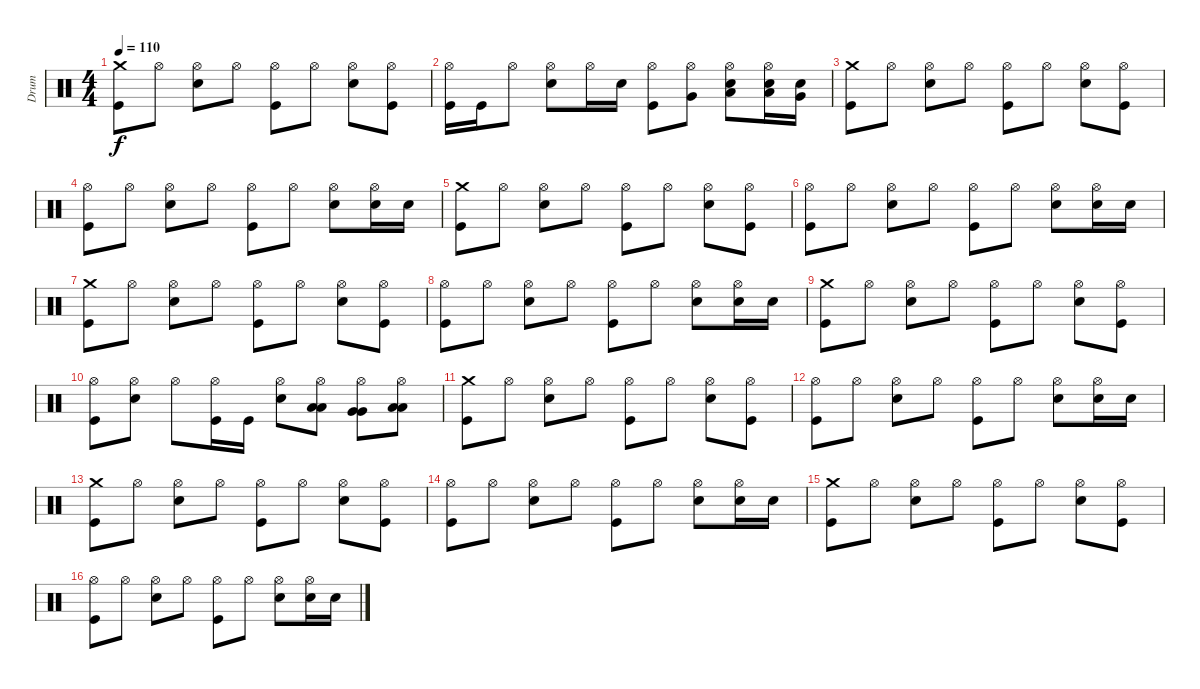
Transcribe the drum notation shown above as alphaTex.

\track ("Drum" "Drum") {instrument percussion}
\staff {score}
\articulation defaults
\ts (4 4)
\tempo 110
\clef neutral
\ks c
("Crash medium (hit)" "Kick (hit)").8{dy f} "Hi-Hat (open)".8 ("Hi-Hat (open)" "Snare (hit) 2").8 "Hi-Hat (open)".8 ("Hi-Hat (open)" "Kick (hit)").8 "Hi-Hat (open)".8 ("Hi-Hat (open)" "Snare (hit) 2").8 ("Hi-Hat (open)" "Kick (hit)").8 |
("Hi-Hat (open)" "Kick (hit)").16 "Kick (hit)".16 "Hi-Hat (open)".8 ("Hi-Hat (open)" "Snare (hit) 2").8 "Hi-Hat (open)".16 "Snare (hit) 2".16 ("Hi-Hat (open)" "Kick (hit)").8 ("Hi-Hat (open)" "Very Low Tom (hit)").8 ("Hi-Hat (open)" "Low Floor Tom (hit)" "Snare (hit) 2").8 ("Hi-Hat (open)" "Low Tom (hit)" "Snare (hit) 2").16 ("Very Low Tom (hit)" "Snare (hit) 2").16 |
("Crash medium (hit)" "Kick (hit)").8 "Hi-Hat (open)".8 ("Hi-Hat (open)" "Snare (hit) 2").8 "Hi-Hat (open)".8 ("Hi-Hat (open)" "Kick (hit)").8 "Hi-Hat (open)".8 ("Hi-Hat (open)" "Snare (hit) 2").8 ("Hi-Hat (open)" "Kick (hit)").8 |
("Hi-Hat (open)" "Kick (hit)").8 "Hi-Hat (open)".8 ("Hi-Hat (open)" "Snare (hit) 2").8 "Hi-Hat (open)".8 ("Hi-Hat (open)" "Kick (hit)").8 "Hi-Hat (open)".8 ("Hi-Hat (open)" "Snare (hit) 2").8 ("Hi-Hat (open)" "Snare (hit) 2").16 "Snare (hit) 2".16 |
("Crash medium (hit)" "Kick (hit)").8 "Hi-Hat (open)".8 ("Hi-Hat (open)" "Snare (hit) 2").8 "Hi-Hat (open)".8 ("Hi-Hat (open)" "Kick (hit)").8 "Hi-Hat (open)".8 ("Hi-Hat (open)" "Snare (hit) 2").8 ("Hi-Hat (open)" "Kick (hit)").8 |
("Hi-Hat (open)" "Kick (hit)").8 "Hi-Hat (open)".8 ("Hi-Hat (open)" "Snare (hit) 2").8 "Hi-Hat (open)".8 ("Hi-Hat (open)" "Kick (hit)").8 "Hi-Hat (open)".8 ("Hi-Hat (open)" "Snare (hit) 2").8 ("Hi-Hat (open)" "Snare (hit) 2").16 "Snare (hit) 2".16 |
("Crash medium (hit)" "Kick (hit)").8 "Hi-Hat (open)".8 ("Hi-Hat (open)" "Snare (hit) 2").8 "Hi-Hat (open)".8 ("Hi-Hat (open)" "Kick (hit)").8 "Hi-Hat (open)".8 ("Hi-Hat (open)" "Snare (hit) 2").8 ("Hi-Hat (open)" "Kick (hit)").8 |
("Hi-Hat (open)" "Kick (hit)").8 "Hi-Hat (open)".8 ("Hi-Hat (open)" "Snare (hit) 2").8 "Hi-Hat (open)".8 ("Hi-Hat (open)" "Kick (hit)").8 "Hi-Hat (open)".8 ("Hi-Hat (open)" "Snare (hit) 2").8 ("Hi-Hat (open)" "Snare (hit) 2").16 "Snare (hit) 2".16 |
("Crash medium (hit)" "Kick (hit)").8 "Hi-Hat (open)".8 ("Hi-Hat (open)" "Snare (hit) 2").8 "Hi-Hat (open)".8 ("Hi-Hat (open)" "Kick (hit)").8 "Hi-Hat (open)".8 ("Hi-Hat (open)" "Snare (hit) 2").8 ("Hi-Hat (open)" "Kick (hit)").8 |
("Hi-Hat (open)" "Kick (hit)").8 ("Hi-Hat (open)" "Snare (hit) 2").8 "Hi-Hat (open)".8 ("Hi-Hat (open)" "Kick (hit)").16 "Kick (hit)".16 ("Hi-Hat (open)" "Snare (hit) 2").8 ("Hi-Hat (open)" "Low Tom (hit)" "Low Tom (hit)").8 ("Hi-Hat (open)" "Very Low Tom (hit)" "Very Low Tom (hit)").8 ("Hi-Hat (open)" "Low Floor Tom (hit)" "Low Floor Tom (hit)").8 |
("Crash medium (hit)" "Kick (hit)").8 "Hi-Hat (open)".8 ("Hi-Hat (open)" "Snare (hit) 2").8 "Hi-Hat (open)".8 ("Hi-Hat (open)" "Kick (hit)").8 "Hi-Hat (open)".8 ("Hi-Hat (open)" "Snare (hit) 2").8 ("Hi-Hat (open)" "Kick (hit)").8 |
("Hi-Hat (open)" "Kick (hit)").8 "Hi-Hat (open)".8 ("Hi-Hat (open)" "Snare (hit) 2").8 "Hi-Hat (open)".8 ("Hi-Hat (open)" "Kick (hit)").8 "Hi-Hat (open)".8 ("Hi-Hat (open)" "Snare (hit) 2").8 ("Hi-Hat (open)" "Snare (hit) 2").16 "Snare (hit) 2".16 |
("Crash medium (hit)" "Kick (hit)").8 "Hi-Hat (open)".8 ("Hi-Hat (open)" "Snare (hit) 2").8 "Hi-Hat (open)".8 ("Hi-Hat (open)" "Kick (hit)").8 "Hi-Hat (open)".8 ("Hi-Hat (open)" "Snare (hit) 2").8 ("Hi-Hat (open)" "Kick (hit)").8 |
("Hi-Hat (open)" "Kick (hit)").8 "Hi-Hat (open)".8 ("Hi-Hat (open)" "Snare (hit) 2").8 "Hi-Hat (open)".8 ("Hi-Hat (open)" "Kick (hit)").8 "Hi-Hat (open)".8 ("Hi-Hat (open)" "Snare (hit) 2").8 ("Hi-Hat (open)" "Snare (hit) 2").16 "Snare (hit) 2".16 |
("Crash medium (hit)" "Kick (hit)").8 "Hi-Hat (open)".8 ("Hi-Hat (open)" "Snare (hit) 2").8 "Hi-Hat (open)".8 ("Hi-Hat (open)" "Kick (hit)").8 "Hi-Hat (open)".8 ("Hi-Hat (open)" "Snare (hit) 2").8 ("Hi-Hat (open)" "Kick (hit)").8 |
("Hi-Hat (open)" "Kick (hit)").8 "Hi-Hat (open)".8 ("Hi-Hat (open)" "Snare (hit) 2").8 "Hi-Hat (open)".8 ("Hi-Hat (open)" "Kick (hit)").8 "Hi-Hat (open)".8 ("Hi-Hat (open)" "Snare (hit) 2").8 ("Hi-Hat (open)" "Snare (hit) 2").16 "Snare (hit) 2".16
